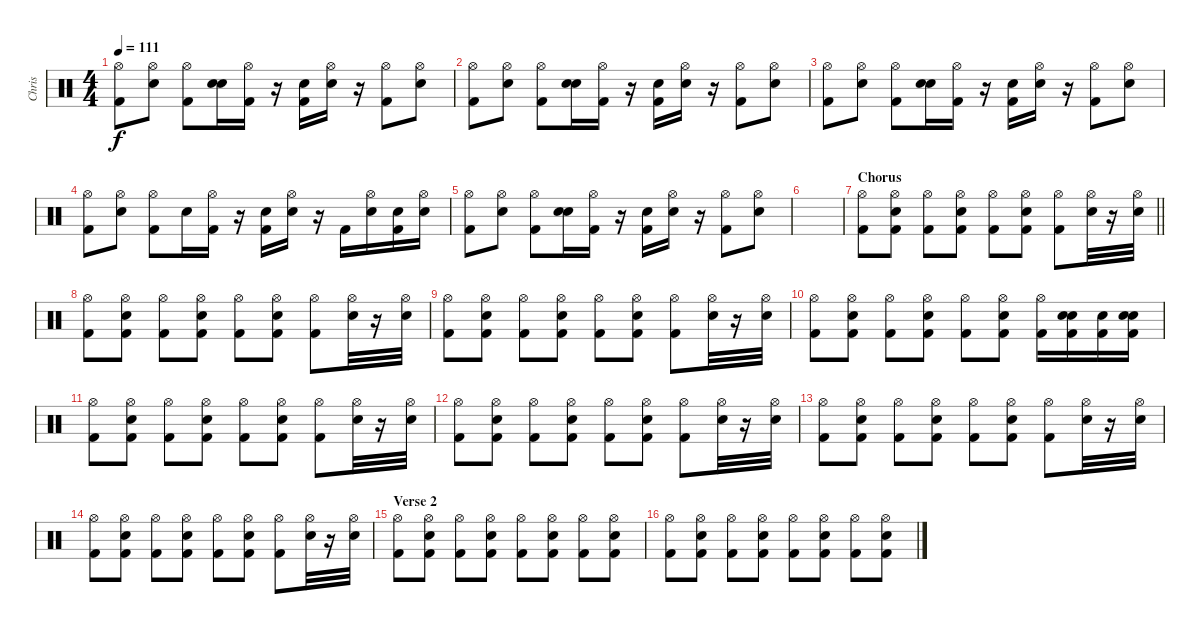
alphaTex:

\track ("Chris" "Chris") {instrument percussion}
\staff {score}
\articulation defaults
\ts (4 4)
\tempo 111
\clef neutral
\ks c
("Hi-Hat (open)" "Kick (hit) 2").8{dy f} ("Hi-Hat (open)" "Snare (hit) 2").8 ("Hi-Hat (open)" "Kick (hit) 2").8 ("Snare (hit)" "Snare (hit) 2").16 ("Hi-Hat (open)" "Kick (hit) 2").16 r.16 ("Snare (hit)" "Kick (hit) 2").16 ("Hi-Hat (open)" "Snare (hit) 2").16 r.16 ("Hi-Hat (open)" "Kick (hit) 2").8 ("Hi-Hat (open)" "Snare (hit) 2").8 |
("Hi-Hat (open)" "Kick (hit) 2").8 ("Hi-Hat (open)" "Snare (hit) 2").8 ("Hi-Hat (open)" "Kick (hit) 2").8 ("Snare (hit)" "Snare (hit) 2").16 ("Hi-Hat (open)" "Kick (hit) 2").16 r.16 ("Snare (hit)" "Kick (hit) 2").16 ("Hi-Hat (open)" "Snare (hit) 2").16 r.16 ("Hi-Hat (open)" "Kick (hit) 2").8 ("Hi-Hat (open)" "Snare (hit) 2").8 |
("Hi-Hat (open)" "Kick (hit) 2").8 ("Hi-Hat (open)" "Snare (hit) 2").8 ("Hi-Hat (open)" "Kick (hit) 2").8 ("Snare (hit)" "Snare (hit) 2").16 ("Hi-Hat (open)" "Kick (hit) 2").16 r.16 ("Snare (hit)" "Kick (hit) 2").16 ("Hi-Hat (open)" "Snare (hit) 2").16 r.16 ("Hi-Hat (open)" "Kick (hit) 2").8 ("Hi-Hat (open)" "Snare (hit) 2").8 |
("Hi-Hat (open)" "Kick (hit) 2").8 ("Hi-Hat (open)" "Snare (hit) 2").8 ("Hi-Hat (open)" "Kick (hit) 2").8 "Snare (hit) 2".16 ("Hi-Hat (open)" "Kick (hit) 2").16 r.16 ("Snare (hit)" "Kick (hit) 2").16 ("Hi-Hat (open)" "Snare (hit) 2").16 r.16 "Kick (hit) 2".16 ("Hi-Hat (open)" "Snare (hit) 2").16 ("Snare (hit)" "Kick (hit) 2").16 ("Hi-Hat (open)" "Snare (hit) 2").16 |
("Hi-Hat (open)" "Kick (hit) 2").8 ("Hi-Hat (open)" "Snare (hit) 2").8 ("Hi-Hat (open)" "Kick (hit) 2").8 ("Snare (hit)" "Snare (hit) 2").16 ("Hi-Hat (open)" "Kick (hit) 2").16 r.16 ("Snare (hit)" "Kick (hit) 2").16 ("Hi-Hat (open)" "Snare (hit) 2").16 r.16 ("Hi-Hat (open)" "Kick (hit) 2").8 ("Hi-Hat (open)" "Snare (hit) 2").8 |
|
\section ("" "Chorus")
\barLineRight lightlight
("Hi-Hat (open)" "Kick (hit) 2").8 ("Hi-Hat (open)" "Snare (hit) 2" "Kick (hit) 2").8 ("Hi-Hat (open)" "Kick (hit) 2").8 ("Hi-Hat (open)" "Snare (hit) 2" "Kick (hit) 2").8 ("Hi-Hat (open)" "Kick (hit) 2").8 ("Hi-Hat (open)" "Snare (hit) 2" "Kick (hit) 2").8 ("Hi-Hat (open)" "Kick (hit) 2").8 ("Hi-Hat (open)" "Snare (hit) 2").32 r.16 ("Hi-Hat (open)" "Snare (hit) 2").32 |
("Hi-Hat (open)" "Kick (hit) 2").8 ("Hi-Hat (open)" "Snare (hit) 2" "Kick (hit) 2").8 ("Hi-Hat (open)" "Kick (hit) 2").8 ("Hi-Hat (open)" "Snare (hit) 2" "Kick (hit) 2").8 ("Hi-Hat (open)" "Kick (hit) 2").8 ("Hi-Hat (open)" "Snare (hit) 2" "Kick (hit) 2").8 ("Hi-Hat (open)" "Kick (hit) 2").8 ("Hi-Hat (open)" "Snare (hit) 2").32 r.16 ("Hi-Hat (open)" "Snare (hit) 2").32 |
("Hi-Hat (open)" "Kick (hit) 2").8 ("Hi-Hat (open)" "Snare (hit) 2" "Kick (hit) 2").8 ("Hi-Hat (open)" "Kick (hit) 2").8 ("Hi-Hat (open)" "Snare (hit) 2" "Kick (hit) 2").8 ("Hi-Hat (open)" "Kick (hit) 2").8 ("Hi-Hat (open)" "Snare (hit) 2" "Kick (hit) 2").8 ("Hi-Hat (open)" "Kick (hit) 2").8 ("Hi-Hat (open)" "Snare (hit) 2").32 r.16 ("Hi-Hat (open)" "Snare (hit) 2").32 |
("Hi-Hat (open)" "Kick (hit) 2").8 ("Hi-Hat (open)" "Snare (hit) 2" "Kick (hit) 2").8 ("Hi-Hat (open)" "Kick (hit) 2").8 ("Hi-Hat (open)" "Snare (hit) 2" "Kick (hit) 2").8 ("Hi-Hat (open)" "Kick (hit) 2").8 ("Hi-Hat (open)" "Snare (hit) 2" "Kick (hit) 2").8 ("Hi-Hat (open)" "Kick (hit) 2").16 ("Snare (hit)" "Snare (hit) 2" "Kick (hit) 2").16 ("Snare (hit)" "Kick (hit) 2").16 ("Snare (hit)" "Snare (hit) 2" "Kick (hit) 2").16 |
("Hi-Hat (open)" "Kick (hit) 2").8 ("Hi-Hat (open)" "Snare (hit) 2" "Kick (hit) 2").8 ("Hi-Hat (open)" "Kick (hit) 2").8 ("Hi-Hat (open)" "Snare (hit) 2" "Kick (hit) 2").8 ("Hi-Hat (open)" "Kick (hit) 2").8 ("Hi-Hat (open)" "Snare (hit) 2" "Kick (hit) 2").8 ("Hi-Hat (open)" "Kick (hit) 2").8 ("Hi-Hat (open)" "Snare (hit) 2").32 r.16 ("Hi-Hat (open)" "Snare (hit) 2").32 |
("Hi-Hat (open)" "Kick (hit) 2").8 ("Hi-Hat (open)" "Snare (hit) 2" "Kick (hit) 2").8 ("Hi-Hat (open)" "Kick (hit) 2").8 ("Hi-Hat (open)" "Snare (hit) 2" "Kick (hit) 2").8 ("Hi-Hat (open)" "Kick (hit) 2").8 ("Hi-Hat (open)" "Snare (hit) 2" "Kick (hit) 2").8 ("Hi-Hat (open)" "Kick (hit) 2").8 ("Hi-Hat (open)" "Snare (hit) 2").32 r.16 ("Hi-Hat (open)" "Snare (hit) 2").32 |
("Hi-Hat (open)" "Kick (hit) 2").8 ("Hi-Hat (open)" "Snare (hit) 2" "Kick (hit) 2").8 ("Hi-Hat (open)" "Kick (hit) 2").8 ("Hi-Hat (open)" "Snare (hit) 2" "Kick (hit) 2").8 ("Hi-Hat (open)" "Kick (hit) 2").8 ("Hi-Hat (open)" "Snare (hit) 2" "Kick (hit) 2").8 ("Hi-Hat (open)" "Kick (hit) 2").8 ("Hi-Hat (open)" "Snare (hit) 2").32 r.16 ("Hi-Hat (open)" "Snare (hit) 2").32 |
("Hi-Hat (open)" "Kick (hit) 2").8 ("Hi-Hat (open)" "Snare (hit) 2" "Kick (hit) 2").8 ("Hi-Hat (open)" "Kick (hit) 2").8 ("Hi-Hat (open)" "Snare (hit) 2" "Kick (hit) 2").8 ("Hi-Hat (open)" "Kick (hit) 2").8 ("Hi-Hat (open)" "Snare (hit) 2" "Kick (hit) 2").8 ("Hi-Hat (open)" "Kick (hit) 2").8 ("Hi-Hat (open)" "Snare (hit) 2").32 r.16 ("Hi-Hat (open)" "Snare (hit) 2").32 |
\section ("" "Verse 2")
("Hi-Hat (open)" "Kick (hit) 2").8 ("Hi-Hat (open)" "Snare (hit) 2" "Kick (hit) 2").8 ("Hi-Hat (open)" "Kick (hit) 2").8 ("Hi-Hat (open)" "Snare (hit) 2" "Kick (hit) 2").8 ("Hi-Hat (open)" "Kick (hit) 2").8 ("Hi-Hat (open)" "Snare (hit) 2" "Kick (hit) 2").8 ("Hi-Hat (open)" "Kick (hit) 2").8 ("Hi-Hat (open)" "Snare (hit) 2" "Kick (hit) 2").8 |
("Hi-Hat (open)" "Kick (hit) 2").8 ("Hi-Hat (open)" "Snare (hit) 2" "Kick (hit) 2").8 ("Hi-Hat (open)" "Kick (hit) 2").8 ("Hi-Hat (open)" "Snare (hit) 2" "Kick (hit) 2").8 ("Hi-Hat (open)" "Kick (hit) 2").8 ("Hi-Hat (open)" "Snare (hit) 2" "Kick (hit) 2").8 ("Hi-Hat (open)" "Kick (hit) 2").8 ("Hi-Hat (open)" "Snare (hit) 2" "Kick (hit) 2").8
